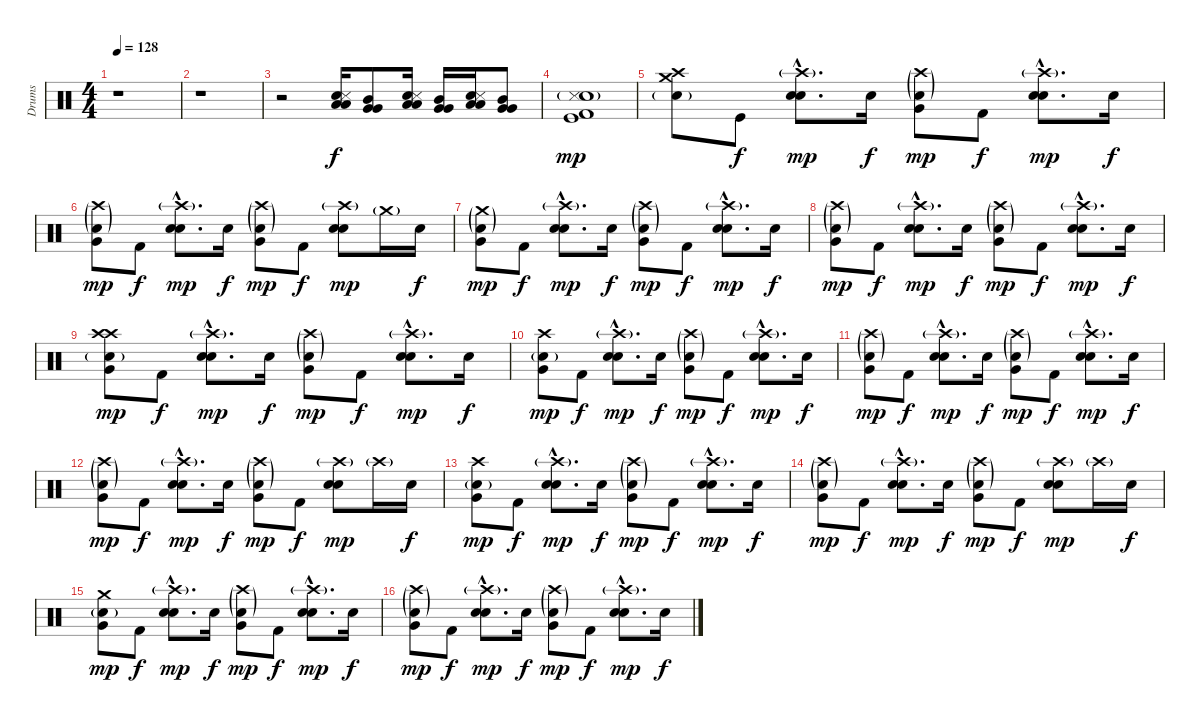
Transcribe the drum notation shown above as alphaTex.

\track ("Drums" "Drums") {instrument percussion}
\staff {score}
\articulation defaults
\ts (4 4)
\tempo 128
\clef neutral
\ks c
r.1{dy f} |
r.1 |
r.2 ("Electric Snare (hit)" "Snare (side stick) 3" "Low Floor Tom (hit)" "Low Floor Tom (hit)").16 ("Very Low Tom (hit)" "Very Low Tom (hit)" "Mid Tom (hit)").8 ("Electric Snare (hit)" "Snare (side stick) 3" "Low Floor Tom (hit)" "Low Floor Tom (hit)").16 ("Very Low Tom (hit)" "Very Low Tom (hit)" "Mid Tom (hit)").16 ("Electric Snare (hit)" "Snare (side stick) 3" "Low Floor Tom (hit)" "Low Floor Tom (hit)").16 ("Very Low Tom (hit)" "Very Low Tom (hit)" "Mid Tom (hit)").8 |
("Kick (hit)" "Kick (hit) 2" "Snare (side stick) 3"{g} "Electric Snare (hit)"{g}).1{dy mp} |
("Crash high (hit)" "Crash medium (hit)" "Electric Snare (hit)"{g}).8 "Kick (hit)".8{dy f} ("Electric Snare (hit)"{hac} "Electric Snare (hit)"{hac} "Crash high (hit)"{g hac}).8{d dy mp} "Electric Snare (hit)".16{dy f} ("Very Low Tom (hit)" "Electric Snare (hit)"{g} "Crash high (hit)"{g}).8{dy mp} "Kick (hit) 2".8{dy f} ("Electric Snare (hit)"{hac} "Electric Snare (hit)"{hac} "Crash high (hit)"{g hac}).8{d dy mp} "Electric Snare (hit)".16{dy f} |
("Very Low Tom (hit)" "Electric Snare (hit)"{g} "Crash high (hit)"{g}).8{dy mp} "Kick (hit) 2".8{dy f} ("Electric Snare (hit)"{hac} "Electric Snare (hit)"{hac} "Crash high (hit)"{g hac}).8{d dy mp} "Electric Snare (hit)".16{dy f} ("Very Low Tom (hit)" "Electric Snare (hit)"{g} "Crash high (hit)"{g}).8{dy mp} "Kick (hit) 2".8{dy f} ("Electric Snare (hit)" "Electric Snare (hit)" "Crash high (hit)"{g}).8{dy mp} "Crash medium (hit)"{g}.16 "Electric Snare (hit)".16{dy f} |
("Very Low Tom (hit)" "Electric Snare (hit)"{g} "Crash medium (hit)"{g}).8{dy mp} "Kick (hit) 2".8{dy f} ("Electric Snare (hit)"{hac} "Electric Snare (hit)"{hac} "Crash high (hit)"{g hac}).8{d dy mp} "Electric Snare (hit)".16{dy f} ("Very Low Tom (hit)" "Electric Snare (hit)"{g} "Crash high (hit)"{g}).8{dy mp} "Kick (hit) 2".8{dy f} ("Electric Snare (hit)"{hac} "Electric Snare (hit)"{hac} "Crash high (hit)"{g hac}).8{d dy mp} "Electric Snare (hit)".16{dy f} |
("Very Low Tom (hit)" "Electric Snare (hit)"{g} "Crash high (hit)"{g}).8{dy mp} "Kick (hit) 2".8{dy f} ("Electric Snare (hit)"{hac} "Electric Snare (hit)"{hac} "Crash high (hit)"{g hac}).8{d dy mp} "Electric Snare (hit)".16{dy f} ("Very Low Tom (hit)" "Electric Snare (hit)"{g} "Crash high (hit)"{g}).8{dy mp} "Kick (hit) 2".8{dy f} ("Electric Snare (hit)"{hac} "Electric Snare (hit)"{hac} "Crash high (hit)"{g hac}).8{d dy mp} "Electric Snare (hit)".16{dy f} |
("Very Low Tom (hit)" "Electric Snare (hit)"{g} "Crash high (hit)" "Crash high (hit)").8{dy mp} "Kick (hit) 2".8{dy f} ("Electric Snare (hit)"{hac} "Electric Snare (hit)"{hac} "Crash high (hit)"{g hac}).8{d dy mp} "Electric Snare (hit)".16{dy f} ("Very Low Tom (hit)" "Electric Snare (hit)"{g} "Crash high (hit)"{g}).8{dy mp} "Kick (hit) 2".8{dy f} ("Electric Snare (hit)"{hac} "Electric Snare (hit)"{hac} "Crash high (hit)"{g hac}).8{d dy mp} "Electric Snare (hit)".16{dy f} |
("Very Low Tom (hit)" "Electric Snare (hit)"{g} "Crash high (hit)").8{dy mp} "Kick (hit) 2".8{dy f} ("Electric Snare (hit)"{hac} "Electric Snare (hit)"{hac} "Crash high (hit)"{g hac}).8{d dy mp} "Electric Snare (hit)".16{dy f} ("Very Low Tom (hit)" "Electric Snare (hit)"{g} "Crash high (hit)"{g}).8{dy mp} "Kick (hit) 2".8{dy f} ("Electric Snare (hit)"{hac} "Electric Snare (hit)"{hac} "Crash high (hit)"{g hac}).8{d dy mp} "Electric Snare (hit)".16{dy f} |
("Very Low Tom (hit)" "Electric Snare (hit)"{g} "Crash high (hit)"{g}).8{dy mp} "Kick (hit) 2".8{dy f} ("Electric Snare (hit)"{hac} "Electric Snare (hit)"{hac} "Crash high (hit)"{g hac}).8{d dy mp} "Electric Snare (hit)".16{dy f} ("Very Low Tom (hit)" "Electric Snare (hit)"{g} "Crash high (hit)"{g}).8{dy mp} "Kick (hit) 2".8{dy f} ("Electric Snare (hit)"{hac} "Electric Snare (hit)"{hac} "Crash high (hit)"{g hac}).8{d dy mp} "Electric Snare (hit)".16{dy f} |
("Very Low Tom (hit)" "Electric Snare (hit)"{g} "Crash high (hit)"{g}).8{dy mp} "Kick (hit) 2".8{dy f} ("Electric Snare (hit)"{hac} "Electric Snare (hit)"{hac} "Crash high (hit)"{g hac}).8{d dy mp} "Electric Snare (hit)".16{dy f} ("Very Low Tom (hit)" "Electric Snare (hit)"{g} "Crash high (hit)"{g}).8{dy mp} "Kick (hit) 2".8{dy f} ("Electric Snare (hit)" "Electric Snare (hit)" "Crash high (hit)"{g}).8{dy mp} "Crash high (hit)"{g}.16 "Electric Snare (hit)".16{dy f} |
("Very Low Tom (hit)" "Electric Snare (hit)"{g} "Crash high (hit)").8{dy mp} "Kick (hit) 2".8{dy f} ("Electric Snare (hit)"{hac} "Electric Snare (hit)"{hac} "Crash high (hit)"{g hac}).8{d dy mp} "Electric Snare (hit)".16{dy f} ("Very Low Tom (hit)" "Electric Snare (hit)"{g} "Crash high (hit)"{g}).8{dy mp} "Kick (hit) 2".8{dy f} ("Electric Snare (hit)"{hac} "Electric Snare (hit)"{hac} "Crash high (hit)"{g hac}).8{d dy mp} "Electric Snare (hit)".16{dy f} |
("Very Low Tom (hit)" "Electric Snare (hit)"{g} "Crash high (hit)"{g}).8{dy mp} "Kick (hit) 2".8{dy f} ("Electric Snare (hit)"{hac} "Electric Snare (hit)"{hac} "Crash high (hit)"{g hac}).8{d dy mp} "Electric Snare (hit)".16{dy f} ("Very Low Tom (hit)" "Electric Snare (hit)"{g} "Crash high (hit)"{g}).8{dy mp} "Kick (hit) 2".8{dy f} ("Electric Snare (hit)" "Electric Snare (hit)" "Crash high (hit)"{g}).8{dy mp} "Crash high (hit)"{g}.16 "Electric Snare (hit)".16{dy f} |
("Very Low Tom (hit)" "Electric Snare (hit)"{g} "Crash medium (hit)").8{dy mp} "Kick (hit) 2".8{dy f} ("Electric Snare (hit)"{hac} "Electric Snare (hit)"{hac} "Crash high (hit)"{g hac}).8{d dy mp} "Electric Snare (hit)".16{dy f} ("Very Low Tom (hit)" "Electric Snare (hit)"{g} "Crash high (hit)"{g}).8{dy mp} "Kick (hit) 2".8{dy f} ("Electric Snare (hit)"{hac} "Electric Snare (hit)"{hac} "Crash high (hit)"{g hac}).8{d dy mp} "Electric Snare (hit)".16{dy f} |
("Very Low Tom (hit)" "Electric Snare (hit)"{g} "Crash high (hit)"{g}).8{dy mp} "Kick (hit) 2".8{dy f} ("Electric Snare (hit)"{hac} "Electric Snare (hit)"{hac} "Crash high (hit)"{g hac}).8{d dy mp} "Electric Snare (hit)".16{dy f} ("Very Low Tom (hit)" "Electric Snare (hit)"{g} "Crash high (hit)"{g}).8{dy mp} "Kick (hit) 2".8{dy f} ("Electric Snare (hit)"{hac} "Electric Snare (hit)"{hac} "Crash high (hit)"{g hac}).8{d dy mp} "Electric Snare (hit)".16{dy f}
